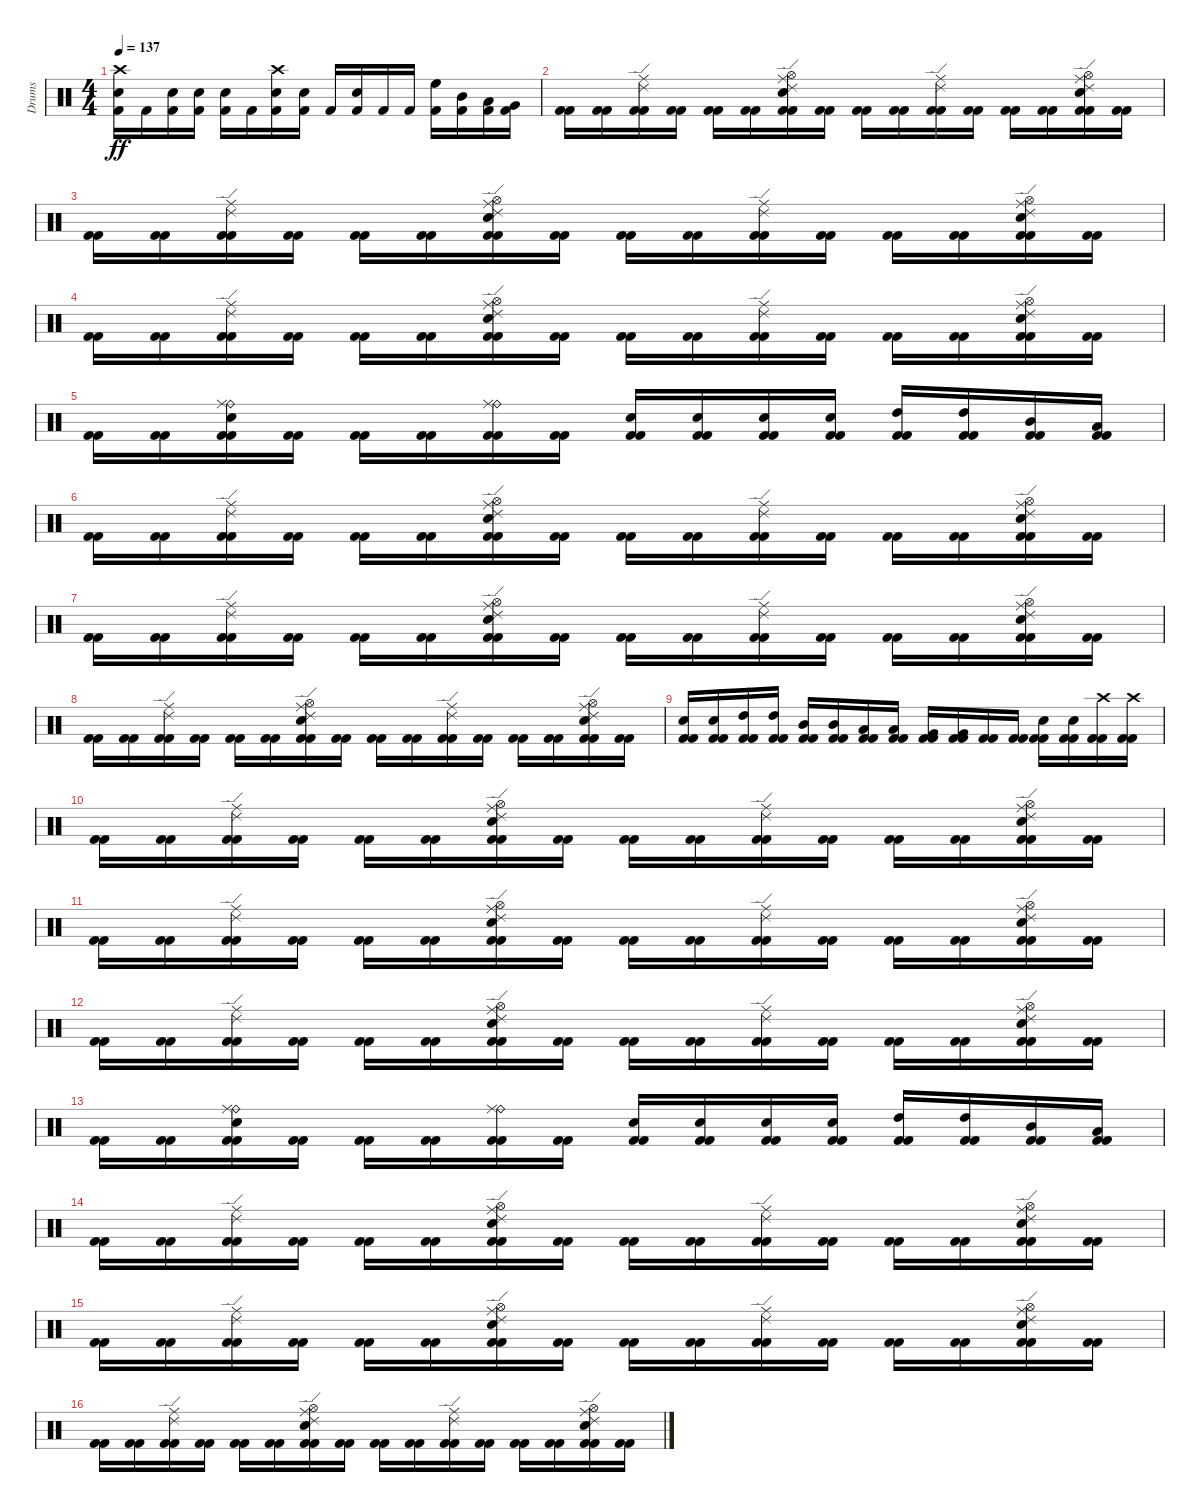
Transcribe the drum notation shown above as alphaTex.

\track ("Drums" "Drums") {instrument percussion}
\staff {score}
\articulation defaults
\ts (4 4)
\tempo 137
\clef neutral
\ks c
("Crash high (hit)" "Electric Snare (hit)" "Kick (hit) 2").16{dy ff} "Kick (hit) 2".16 ("Electric Snare (hit)" "Kick (hit) 2").16 ("Electric Snare (hit)" "Kick (hit) 2").16 ("Electric Snare (hit)" "Kick (hit) 2").16 "Kick (hit) 2".16 ("Crash high (hit)" "Electric Snare (hit)" "Kick (hit) 2").16 ("Electric Snare (hit)" "Kick (hit) 2").16 "Kick (hit) 2".16 ("Electric Snare (hit)" "Kick (hit) 2").16 "Kick (hit) 2".16 "Kick (hit) 2".16 ("High Floor Tom (hit)" "Kick (hit) 2").16 ("Mid Tom (hit)" "Kick (hit) 2").16 ("Low Tom (hit)" "Kick (hit) 2").16 ("Very Low Tom (hit)" "Kick (hit) 2").16 |
("Kick (hit) 2" "Kick (hit) 2").16 ("Kick (hit) 2" "Kick (hit) 2").16 ("Ride (edge) 2" "Ride (middle)" "Kick (hit) 2" "Kick (hit) 2").16 ("Kick (hit) 2" "Kick (hit) 2").16 ("Kick (hit) 2" "Kick (hit) 2").16 ("Kick (hit) 2" "Kick (hit) 2").16 ("Ride (edge) 2" "Hi-Hat (open)" "Ride (middle)" "Electric Snare (hit)" "Kick (hit) 2" "Kick (hit) 2").16 ("Kick (hit) 2" "Kick (hit) 2").16 ("Kick (hit) 2" "Kick (hit) 2").16 ("Kick (hit) 2" "Kick (hit) 2").16 ("Ride (edge) 2" "Ride (middle)" "Kick (hit) 2" "Kick (hit) 2").16 ("Kick (hit) 2" "Kick (hit) 2").16 ("Kick (hit) 2" "Kick (hit) 2").16 ("Kick (hit) 2" "Kick (hit) 2").16 ("Ride (edge) 2" "Hi-Hat (open)" "Ride (middle)" "Electric Snare (hit)" "Kick (hit) 2" "Kick (hit) 2").16 ("Kick (hit) 2" "Kick (hit) 2").16 |
("Kick (hit) 2" "Kick (hit) 2").16 ("Kick (hit) 2" "Kick (hit) 2").16 ("Ride (edge) 2" "Ride (middle)" "Kick (hit) 2" "Kick (hit) 2").16 ("Kick (hit) 2" "Kick (hit) 2").16 ("Kick (hit) 2" "Kick (hit) 2").16 ("Kick (hit) 2" "Kick (hit) 2").16 ("Ride (edge) 2" "Hi-Hat (open)" "Ride (middle)" "Electric Snare (hit)" "Kick (hit) 2" "Kick (hit) 2").16 ("Kick (hit) 2" "Kick (hit) 2").16 ("Kick (hit) 2" "Kick (hit) 2").16 ("Kick (hit) 2" "Kick (hit) 2").16 ("Ride (edge) 2" "Ride (middle)" "Kick (hit) 2" "Kick (hit) 2").16 ("Kick (hit) 2" "Kick (hit) 2").16 ("Kick (hit) 2" "Kick (hit) 2").16 ("Kick (hit) 2" "Kick (hit) 2").16 ("Ride (edge) 2" "Hi-Hat (open)" "Ride (middle)" "Electric Snare (hit)" "Kick (hit) 2" "Kick (hit) 2").16 ("Kick (hit) 2" "Kick (hit) 2").16 |
("Kick (hit) 2" "Kick (hit) 2").16 ("Kick (hit) 2" "Kick (hit) 2").16 ("Ride (edge) 2" "Ride (middle)" "Kick (hit) 2" "Kick (hit) 2").16 ("Kick (hit) 2" "Kick (hit) 2").16 ("Kick (hit) 2" "Kick (hit) 2").16 ("Kick (hit) 2" "Kick (hit) 2").16 ("Ride (edge) 2" "Hi-Hat (open)" "Ride (middle)" "Electric Snare (hit)" "Kick (hit) 2" "Kick (hit) 2").16 ("Kick (hit) 2" "Kick (hit) 2").16 ("Kick (hit) 2" "Kick (hit) 2").16 ("Kick (hit) 2" "Kick (hit) 2").16 ("Ride (edge) 2" "Ride (middle)" "Kick (hit) 2" "Kick (hit) 2").16 ("Kick (hit) 2" "Kick (hit) 2").16 ("Kick (hit) 2" "Kick (hit) 2").16 ("Kick (hit) 2" "Kick (hit) 2").16 ("Ride (edge) 2" "Hi-Hat (open)" "Ride (middle)" "Electric Snare (hit)" "Kick (hit) 2" "Kick (hit) 2").16 ("Kick (hit) 2" "Kick (hit) 2").16 |
("Kick (hit) 2" "Kick (hit) 2").16 ("Kick (hit) 2" "Kick (hit) 2").16 ("Ride (bell)" "Electric Snare (hit)" "Ride (middle)" "Kick (hit) 2" "Kick (hit) 2").16 ("Kick (hit) 2" "Kick (hit) 2").16 ("Kick (hit) 2" "Kick (hit) 2").16 ("Kick (hit) 2" "Kick (hit) 2").16 ("Ride (bell)" "Ride (middle)" "Kick (hit) 2" "Kick (hit) 2").16 ("Kick (hit) 2" "Kick (hit) 2").16 ("Electric Snare (hit)" "Kick (hit) 2" "Kick (hit) 2").16 ("Electric Snare (hit)" "Kick (hit) 2" "Kick (hit) 2").16 ("Electric Snare (hit)" "Kick (hit) 2" "Kick (hit) 2").16 ("Electric Snare (hit)" "Kick (hit) 2" "Kick (hit) 2").16 ("High Tom (hit)" "Kick (hit) 2" "Kick (hit) 2").16 ("High Tom (hit)" "Kick (hit) 2" "Kick (hit) 2").16 ("Mid Tom (hit)" "Kick (hit) 2" "Kick (hit) 2").16 ("Low Tom (hit)" "Kick (hit) 2" "Kick (hit) 2").16 |
("Kick (hit) 2" "Kick (hit) 2").16 ("Kick (hit) 2" "Kick (hit) 2").16 ("Ride (edge) 2" "Ride (middle)" "Kick (hit) 2" "Kick (hit) 2").16 ("Kick (hit) 2" "Kick (hit) 2").16 ("Kick (hit) 2" "Kick (hit) 2").16 ("Kick (hit) 2" "Kick (hit) 2").16 ("Ride (edge) 2" "Hi-Hat (open)" "Ride (middle)" "Electric Snare (hit)" "Kick (hit) 2" "Kick (hit) 2").16 ("Kick (hit) 2" "Kick (hit) 2").16 ("Kick (hit) 2" "Kick (hit) 2").16 ("Kick (hit) 2" "Kick (hit) 2").16 ("Ride (edge) 2" "Ride (middle)" "Kick (hit) 2" "Kick (hit) 2").16 ("Kick (hit) 2" "Kick (hit) 2").16 ("Kick (hit) 2" "Kick (hit) 2").16 ("Kick (hit) 2" "Kick (hit) 2").16 ("Ride (edge) 2" "Hi-Hat (open)" "Ride (middle)" "Electric Snare (hit)" "Kick (hit) 2" "Kick (hit) 2").16 ("Kick (hit) 2" "Kick (hit) 2").16 |
("Kick (hit) 2" "Kick (hit) 2").16 ("Kick (hit) 2" "Kick (hit) 2").16 ("Ride (edge) 2" "Ride (middle)" "Kick (hit) 2" "Kick (hit) 2").16 ("Kick (hit) 2" "Kick (hit) 2").16 ("Kick (hit) 2" "Kick (hit) 2").16 ("Kick (hit) 2" "Kick (hit) 2").16 ("Ride (edge) 2" "Hi-Hat (open)" "Ride (middle)" "Electric Snare (hit)" "Kick (hit) 2" "Kick (hit) 2").16 ("Kick (hit) 2" "Kick (hit) 2").16 ("Kick (hit) 2" "Kick (hit) 2").16 ("Kick (hit) 2" "Kick (hit) 2").16 ("Ride (edge) 2" "Ride (middle)" "Kick (hit) 2" "Kick (hit) 2").16 ("Kick (hit) 2" "Kick (hit) 2").16 ("Kick (hit) 2" "Kick (hit) 2").16 ("Kick (hit) 2" "Kick (hit) 2").16 ("Ride (edge) 2" "Hi-Hat (open)" "Ride (middle)" "Electric Snare (hit)" "Kick (hit) 2" "Kick (hit) 2").16 ("Kick (hit) 2" "Kick (hit) 2").16 |
("Kick (hit) 2" "Kick (hit) 2").16 ("Kick (hit) 2" "Kick (hit) 2").16 ("Ride (edge) 2" "Ride (middle)" "Kick (hit) 2" "Kick (hit) 2").16 ("Kick (hit) 2" "Kick (hit) 2").16 ("Kick (hit) 2" "Kick (hit) 2").16 ("Kick (hit) 2" "Kick (hit) 2").16 ("Ride (edge) 2" "Hi-Hat (open)" "Ride (middle)" "Electric Snare (hit)" "Kick (hit) 2" "Kick (hit) 2").16 ("Kick (hit) 2" "Kick (hit) 2").16 ("Kick (hit) 2" "Kick (hit) 2").16 ("Kick (hit) 2" "Kick (hit) 2").16 ("Ride (edge) 2" "Ride (middle)" "Kick (hit) 2" "Kick (hit) 2").16 ("Kick (hit) 2" "Kick (hit) 2").16 ("Kick (hit) 2" "Kick (hit) 2").16 ("Kick (hit) 2" "Kick (hit) 2").16 ("Ride (edge) 2" "Hi-Hat (open)" "Ride (middle)" "Electric Snare (hit)" "Kick (hit) 2" "Kick (hit) 2").16 ("Kick (hit) 2" "Kick (hit) 2").16 |
("Electric Snare (hit)" "Kick (hit) 2" "Kick (hit) 2").16 ("Electric Snare (hit)" "Kick (hit) 2" "Kick (hit) 2").16 ("High Tom (hit)" "Kick (hit) 2" "Kick (hit) 2").16 ("High Tom (hit)" "Kick (hit) 2" "Kick (hit) 2").16 ("Mid Tom (hit)" "Kick (hit) 2" "Kick (hit) 2").16 ("Mid Tom (hit)" "Kick (hit) 2" "Kick (hit) 2").16 ("Low Tom (hit)" "Kick (hit) 2" "Kick (hit) 2").16 ("Low Tom (hit)" "Kick (hit) 2" "Kick (hit) 2").16 ("Very Low Tom (hit)" "Kick (hit) 2" "Kick (hit) 2").16 ("Very Low Tom (hit)" "Kick (hit) 2" "Kick (hit) 2").16 ("Kick (hit) 2" "Kick (hit) 2").16 ("Kick (hit) 2" "Kick (hit) 2").16 ("Electric Snare (hit)" "Kick (hit) 2" "Kick (hit) 2").16 ("Electric Snare (hit)" "Kick (hit) 2" "Kick (hit) 2").16 ("Crash high (hit)" "Kick (hit) 2" "Kick (hit) 2").16 ("Crash high (hit)" "Kick (hit) 2" "Kick (hit) 2").16 |
("Kick (hit) 2" "Kick (hit) 2").16 ("Kick (hit) 2" "Kick (hit) 2").16 ("Ride (edge) 2" "Ride (middle)" "Kick (hit) 2" "Kick (hit) 2").16 ("Kick (hit) 2" "Kick (hit) 2").16 ("Kick (hit) 2" "Kick (hit) 2").16 ("Kick (hit) 2" "Kick (hit) 2").16 ("Ride (edge) 2" "Hi-Hat (open)" "Ride (middle)" "Electric Snare (hit)" "Kick (hit) 2" "Kick (hit) 2").16 ("Kick (hit) 2" "Kick (hit) 2").16 ("Kick (hit) 2" "Kick (hit) 2").16 ("Kick (hit) 2" "Kick (hit) 2").16 ("Ride (edge) 2" "Ride (middle)" "Kick (hit) 2" "Kick (hit) 2").16 ("Kick (hit) 2" "Kick (hit) 2").16 ("Kick (hit) 2" "Kick (hit) 2").16 ("Kick (hit) 2" "Kick (hit) 2").16 ("Ride (edge) 2" "Hi-Hat (open)" "Ride (middle)" "Electric Snare (hit)" "Kick (hit) 2" "Kick (hit) 2").16 ("Kick (hit) 2" "Kick (hit) 2").16 |
("Kick (hit) 2" "Kick (hit) 2").16 ("Kick (hit) 2" "Kick (hit) 2").16 ("Ride (edge) 2" "Ride (middle)" "Kick (hit) 2" "Kick (hit) 2").16 ("Kick (hit) 2" "Kick (hit) 2").16 ("Kick (hit) 2" "Kick (hit) 2").16 ("Kick (hit) 2" "Kick (hit) 2").16 ("Ride (edge) 2" "Hi-Hat (open)" "Ride (middle)" "Electric Snare (hit)" "Kick (hit) 2" "Kick (hit) 2").16 ("Kick (hit) 2" "Kick (hit) 2").16 ("Kick (hit) 2" "Kick (hit) 2").16 ("Kick (hit) 2" "Kick (hit) 2").16 ("Ride (edge) 2" "Ride (middle)" "Kick (hit) 2" "Kick (hit) 2").16 ("Kick (hit) 2" "Kick (hit) 2").16 ("Kick (hit) 2" "Kick (hit) 2").16 ("Kick (hit) 2" "Kick (hit) 2").16 ("Ride (edge) 2" "Hi-Hat (open)" "Ride (middle)" "Electric Snare (hit)" "Kick (hit) 2" "Kick (hit) 2").16 ("Kick (hit) 2" "Kick (hit) 2").16 |
("Kick (hit) 2" "Kick (hit) 2").16 ("Kick (hit) 2" "Kick (hit) 2").16 ("Ride (edge) 2" "Ride (middle)" "Kick (hit) 2" "Kick (hit) 2").16 ("Kick (hit) 2" "Kick (hit) 2").16 ("Kick (hit) 2" "Kick (hit) 2").16 ("Kick (hit) 2" "Kick (hit) 2").16 ("Ride (edge) 2" "Hi-Hat (open)" "Ride (middle)" "Electric Snare (hit)" "Kick (hit) 2" "Kick (hit) 2").16 ("Kick (hit) 2" "Kick (hit) 2").16 ("Kick (hit) 2" "Kick (hit) 2").16 ("Kick (hit) 2" "Kick (hit) 2").16 ("Ride (edge) 2" "Ride (middle)" "Kick (hit) 2" "Kick (hit) 2").16 ("Kick (hit) 2" "Kick (hit) 2").16 ("Kick (hit) 2" "Kick (hit) 2").16 ("Kick (hit) 2" "Kick (hit) 2").16 ("Ride (edge) 2" "Hi-Hat (open)" "Ride (middle)" "Electric Snare (hit)" "Kick (hit) 2" "Kick (hit) 2").16 ("Kick (hit) 2" "Kick (hit) 2").16 |
("Kick (hit) 2" "Kick (hit) 2").16 ("Kick (hit) 2" "Kick (hit) 2").16 ("Ride (bell)" "Electric Snare (hit)" "Ride (middle)" "Kick (hit) 2" "Kick (hit) 2").16 ("Kick (hit) 2" "Kick (hit) 2").16 ("Kick (hit) 2" "Kick (hit) 2").16 ("Kick (hit) 2" "Kick (hit) 2").16 ("Ride (bell)" "Ride (middle)" "Kick (hit) 2" "Kick (hit) 2").16 ("Kick (hit) 2" "Kick (hit) 2").16 ("Electric Snare (hit)" "Kick (hit) 2" "Kick (hit) 2").16 ("Electric Snare (hit)" "Kick (hit) 2" "Kick (hit) 2").16 ("Electric Snare (hit)" "Kick (hit) 2" "Kick (hit) 2").16 ("Electric Snare (hit)" "Kick (hit) 2" "Kick (hit) 2").16 ("High Tom (hit)" "Kick (hit) 2" "Kick (hit) 2").16 ("High Tom (hit)" "Kick (hit) 2" "Kick (hit) 2").16 ("Mid Tom (hit)" "Kick (hit) 2" "Kick (hit) 2").16 ("Low Tom (hit)" "Kick (hit) 2" "Kick (hit) 2").16 |
("Kick (hit) 2" "Kick (hit) 2").16 ("Kick (hit) 2" "Kick (hit) 2").16 ("Ride (edge) 2" "Ride (middle)" "Kick (hit) 2" "Kick (hit) 2").16 ("Kick (hit) 2" "Kick (hit) 2").16 ("Kick (hit) 2" "Kick (hit) 2").16 ("Kick (hit) 2" "Kick (hit) 2").16 ("Ride (edge) 2" "Hi-Hat (open)" "Ride (middle)" "Electric Snare (hit)" "Kick (hit) 2" "Kick (hit) 2").16 ("Kick (hit) 2" "Kick (hit) 2").16 ("Kick (hit) 2" "Kick (hit) 2").16 ("Kick (hit) 2" "Kick (hit) 2").16 ("Ride (edge) 2" "Ride (middle)" "Kick (hit) 2" "Kick (hit) 2").16 ("Kick (hit) 2" "Kick (hit) 2").16 ("Kick (hit) 2" "Kick (hit) 2").16 ("Kick (hit) 2" "Kick (hit) 2").16 ("Ride (edge) 2" "Hi-Hat (open)" "Ride (middle)" "Electric Snare (hit)" "Kick (hit) 2" "Kick (hit) 2").16 ("Kick (hit) 2" "Kick (hit) 2").16 |
("Kick (hit) 2" "Kick (hit) 2").16 ("Kick (hit) 2" "Kick (hit) 2").16 ("Ride (edge) 2" "Ride (middle)" "Kick (hit) 2" "Kick (hit) 2").16 ("Kick (hit) 2" "Kick (hit) 2").16 ("Kick (hit) 2" "Kick (hit) 2").16 ("Kick (hit) 2" "Kick (hit) 2").16 ("Ride (edge) 2" "Hi-Hat (open)" "Ride (middle)" "Electric Snare (hit)" "Kick (hit) 2" "Kick (hit) 2").16 ("Kick (hit) 2" "Kick (hit) 2").16 ("Kick (hit) 2" "Kick (hit) 2").16 ("Kick (hit) 2" "Kick (hit) 2").16 ("Ride (edge) 2" "Ride (middle)" "Kick (hit) 2" "Kick (hit) 2").16 ("Kick (hit) 2" "Kick (hit) 2").16 ("Kick (hit) 2" "Kick (hit) 2").16 ("Kick (hit) 2" "Kick (hit) 2").16 ("Ride (edge) 2" "Hi-Hat (open)" "Ride (middle)" "Electric Snare (hit)" "Kick (hit) 2" "Kick (hit) 2").16 ("Kick (hit) 2" "Kick (hit) 2").16 |
("Kick (hit) 2" "Kick (hit) 2").16 ("Kick (hit) 2" "Kick (hit) 2").16 ("Ride (edge) 2" "Ride (middle)" "Kick (hit) 2" "Kick (hit) 2").16 ("Kick (hit) 2" "Kick (hit) 2").16 ("Kick (hit) 2" "Kick (hit) 2").16 ("Kick (hit) 2" "Kick (hit) 2").16 ("Ride (edge) 2" "Hi-Hat (open)" "Ride (middle)" "Electric Snare (hit)" "Kick (hit) 2" "Kick (hit) 2").16 ("Kick (hit) 2" "Kick (hit) 2").16 ("Kick (hit) 2" "Kick (hit) 2").16 ("Kick (hit) 2" "Kick (hit) 2").16 ("Ride (edge) 2" "Ride (middle)" "Kick (hit) 2" "Kick (hit) 2").16 ("Kick (hit) 2" "Kick (hit) 2").16 ("Kick (hit) 2" "Kick (hit) 2").16 ("Kick (hit) 2" "Kick (hit) 2").16 ("Ride (edge) 2" "Hi-Hat (open)" "Ride (middle)" "Electric Snare (hit)" "Kick (hit) 2" "Kick (hit) 2").16 ("Kick (hit) 2" "Kick (hit) 2").16
